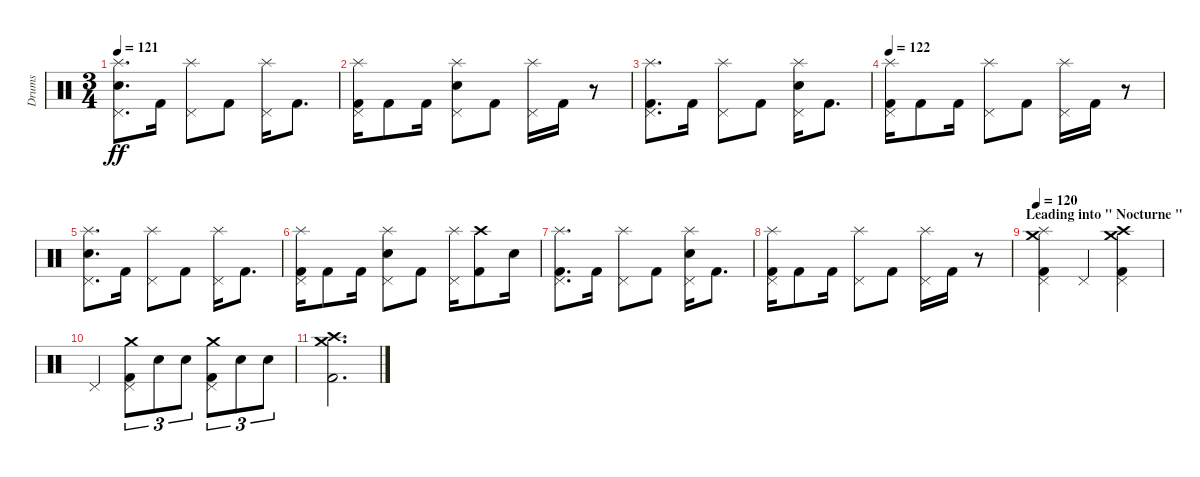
\track ("Drums" "Drums") {instrument percussion}
\staff {score}
\articulation defaults
\ts (3 4)
\tempo 121
\clef neutral
\ks c
("Splash (hit)" "Pedal Hi-Hat (hit)" "Electric Snare (hit)").8{d dy ff} "Kick (hit) 2".16 ("Splash (hit)" "Pedal Hi-Hat (hit)").8 "Kick (hit) 2".8 ("Splash (hit)" "Pedal Hi-Hat (hit)").16 "Kick (hit) 2".8{d} |
("Splash (hit)" "Pedal Hi-Hat (hit)" "Kick (hit) 2").16 "Kick (hit) 2".8 "Kick (hit) 2".16 ("Splash (hit)" "Pedal Hi-Hat (hit)" "Electric Snare (hit)").8 "Kick (hit) 2".8 ("Splash (hit)" "Pedal Hi-Hat (hit)").16 "Kick (hit) 2".16 r.8 |
("Splash (hit)" "Pedal Hi-Hat (hit)" "Kick (hit) 2").8{d} "Kick (hit) 2".16 ("Splash (hit)" "Pedal Hi-Hat (hit)").8 "Kick (hit) 2".8 ("Splash (hit)" "Pedal Hi-Hat (hit)" "Electric Snare (hit)").16 "Kick (hit) 2".8{d} |
\tempo 122
("Splash (hit)" "Pedal Hi-Hat (hit)" "Kick (hit) 2").16 "Kick (hit) 2".8 "Kick (hit) 2".16 ("Splash (hit)" "Pedal Hi-Hat (hit)").8 "Kick (hit) 2".8 ("Splash (hit)" "Pedal Hi-Hat (hit)").16 "Kick (hit) 2".16 r.8 |
("Splash (hit)" "Pedal Hi-Hat (hit)" "Electric Snare (hit)").8{d} "Kick (hit) 2".16 ("Splash (hit)" "Pedal Hi-Hat (hit)").8 "Kick (hit) 2".8 ("Splash (hit)" "Pedal Hi-Hat (hit)").16 "Kick (hit) 2".8{d} |
("Splash (hit)" "Pedal Hi-Hat (hit)" "Kick (hit) 2").16 "Kick (hit) 2".8 "Kick (hit) 2".16 ("Splash (hit)" "Pedal Hi-Hat (hit)" "Electric Snare (hit)").8 "Kick (hit) 2".8 ("Splash (hit)" "Pedal Hi-Hat (hit)").16 ("Crash high (hit)" "Kick (hit) 2").8 "Electric Snare (hit)".16 |
("Splash (hit)" "Pedal Hi-Hat (hit)" "Kick (hit) 2").8{d} "Kick (hit) 2".16 ("Splash (hit)" "Pedal Hi-Hat (hit)").8 "Kick (hit) 2".8 ("Splash (hit)" "Pedal Hi-Hat (hit)" "Electric Snare (hit)").16 "Kick (hit) 2".8{d} |
("Splash (hit)" "Pedal Hi-Hat (hit)" "Kick (hit) 2").16 "Kick (hit) 2".8 "Kick (hit) 2".16 ("Splash (hit)" "Pedal Hi-Hat (hit)").8 "Kick (hit) 2".8 ("Splash (hit)" "Pedal Hi-Hat (hit)").16 "Kick (hit) 2".16 r.8 |
\section ("" "Leading into \" Nocturne \"")
\tempo 120
("Crash medium (hit)" "Splash (hit)" "Pedal Hi-Hat (hit)" "Kick (hit) 2").4 "Pedal Hi-Hat (hit)".4 ("Crash medium (hit)" "Crash high (hit)" "Pedal Hi-Hat (hit)" "Kick (hit) 2").4 |
"Pedal Hi-Hat (hit)".4 ("Crash medium (hit)" "Pedal Hi-Hat (hit)" "Kick (hit) 2").8{tu (3 2)} "Electric Snare (hit)".8{tu (3 2)} "Electric Snare (hit)".8{tu (3 2)} ("Crash medium (hit)" "Pedal Hi-Hat (hit)" "Kick (hit) 2").8{tu (3 2)} "Electric Snare (hit)".8{tu (3 2)} "Electric Snare (hit)".8{tu (3 2)} |
("Crash medium (hit)" "Crash high (hit)" "Kick (hit) 2").2{d}
